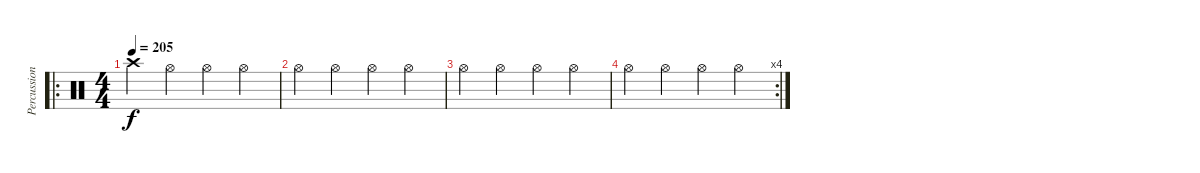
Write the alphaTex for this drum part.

\track ("Percussion" "Percussion") {instrument percussion}
\staff {score}
\articulation defaults
\ro
\ts (4 4)
\tempo 205
\clef neutral
\ks c "Crash high (hit)".4{dy f} "Hi-Hat (open)".4 "Hi-Hat (open)".4 "Hi-Hat (open)".4
|
"Hi-Hat (open)".4 "Hi-Hat (open)".4 "Hi-Hat (open)".4 "Hi-Hat (open)".4 |
"Hi-Hat (open)".4 "Hi-Hat (open)".4 "Hi-Hat (open)".4 "Hi-Hat (open)".4 |
\rc 4 "Hi-Hat (open)".4 "Hi-Hat (open)".4 "Hi-Hat (open)".4 "Hi-Hat (open)".4
